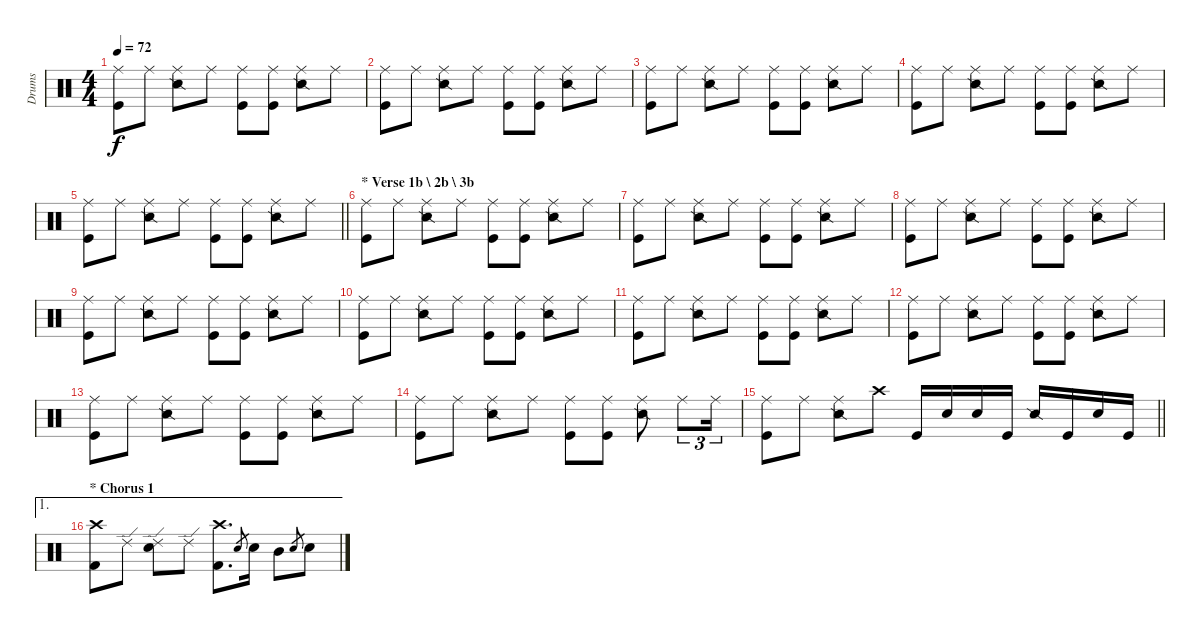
\track ("Drums" "Drums") {instrument percussion}
\staff {score}
\articulation defaults
\ts (4 4)
\tempo 72
\clef neutral
\ks c
("Ride (middle)" "Kick (hit)").8{dy f} "Ride (middle)".8 ("Ride (middle)" "Snare (side stick) 2").8 "Ride (middle)".8 ("Ride (middle)" "Kick (hit)").8 ("Ride (middle)" "Kick (hit)").8 ("Ride (middle)" "Snare (side stick) 2").8 "Ride (middle)".8 |
("Ride (middle)" "Kick (hit)").8 "Ride (middle)".8 ("Ride (middle)" "Snare (side stick) 2").8 "Ride (middle)".8 ("Ride (middle)" "Kick (hit)").8 ("Ride (middle)" "Kick (hit)").8 ("Ride (middle)" "Snare (side stick) 2").8 "Ride (middle)".8 |
("Ride (middle)" "Kick (hit)").8 "Ride (middle)".8 ("Ride (middle)" "Snare (side stick) 2").8 "Ride (middle)".8 ("Ride (middle)" "Kick (hit)").8 ("Ride (middle)" "Kick (hit)").8 ("Ride (middle)" "Snare (side stick) 2").8 "Ride (middle)".8 |
("Ride (middle)" "Kick (hit)").8 "Ride (middle)".8 ("Ride (middle)" "Snare (side stick) 2").8 "Ride (middle)".8 ("Ride (middle)" "Kick (hit)").8 ("Ride (middle)" "Kick (hit)").8 ("Ride (middle)" "Snare (side stick) 2").8 "Ride (middle)".8 |
\barLineRight lightlight
("Ride (middle)" "Kick (hit)").8 "Ride (middle)".8 ("Ride (middle)" "Snare (side stick) 2").8 "Ride (middle)".8 ("Ride (middle)" "Kick (hit)").8 ("Ride (middle)" "Kick (hit)").8 ("Ride (middle)" "Snare (side stick) 2").8 "Ride (middle)".8 |
\section ("" "* Verse 1b \\ 2b \\ 3b")
("Ride (middle)" "Kick (hit)").8 "Ride (middle)".8 ("Ride (middle)" "Snare (side stick) 2").8 "Ride (middle)".8 ("Ride (middle)" "Kick (hit)").8 ("Ride (middle)" "Kick (hit)").8 ("Ride (middle)" "Snare (side stick) 2").8 "Ride (middle)".8 |
("Ride (middle)" "Kick (hit)").8 "Ride (middle)".8 ("Ride (middle)" "Snare (side stick) 2").8 "Ride (middle)".8 ("Ride (middle)" "Kick (hit)").8 ("Ride (middle)" "Kick (hit)").8 ("Ride (middle)" "Snare (side stick) 2").8 "Ride (middle)".8 |
("Ride (middle)" "Kick (hit)").8 "Ride (middle)".8 ("Ride (middle)" "Snare (side stick) 2").8 "Ride (middle)".8 ("Ride (middle)" "Kick (hit)").8 ("Ride (middle)" "Kick (hit)").8 ("Ride (middle)" "Snare (side stick) 2").8 "Ride (middle)".8 |
("Ride (middle)" "Kick (hit)").8 "Ride (middle)".8 ("Ride (middle)" "Snare (side stick) 2").8 "Ride (middle)".8 ("Ride (middle)" "Kick (hit)").8 ("Ride (middle)" "Kick (hit)").8 ("Ride (middle)" "Snare (side stick) 2").8 "Ride (middle)".8 |
("Ride (middle)" "Kick (hit)").8 "Ride (middle)".8 ("Ride (middle)" "Snare (side stick) 2").8 "Ride (middle)".8 ("Ride (middle)" "Kick (hit)").8 ("Ride (middle)" "Kick (hit)").8 ("Ride (middle)" "Snare (side stick) 2").8 "Ride (middle)".8 |
("Ride (middle)" "Kick (hit)").8 "Ride (middle)".8 ("Ride (middle)" "Snare (side stick) 2").8 "Ride (middle)".8 ("Ride (middle)" "Kick (hit)").8 ("Ride (middle)" "Kick (hit)").8 ("Ride (middle)" "Snare (side stick) 2").8 "Ride (middle)".8 |
("Ride (middle)" "Kick (hit)").8 "Ride (middle)".8 ("Ride (middle)" "Snare (side stick) 2").8 "Ride (middle)".8 ("Ride (middle)" "Kick (hit)").8 ("Ride (middle)" "Kick (hit)").8 ("Ride (middle)" "Snare (side stick) 2").8 "Ride (middle)".8 |
("Ride (middle)" "Kick (hit)").8 "Ride (middle)".8 ("Ride (middle)" "Snare (side stick) 2").8 "Ride (middle)".8 ("Ride (middle)" "Kick (hit)").8 ("Ride (middle)" "Kick (hit)").8 ("Ride (middle)" "Snare (side stick) 2").8 "Ride (middle)".8 |
("Ride (middle)" "Kick (hit)").8 "Ride (middle)".8 ("Ride (middle)" "Snare (side stick) 2").8 "Ride (middle)".8 ("Ride (middle)" "Kick (hit)").8 ("Ride (middle)" "Kick (hit)").8 ("Ride (middle)" "Snare (side stick) 2").8 "Ride (middle)".8{tu (3 2)} "Ride (middle)".16{tu (3 2)} |
\barLineRight lightlight
("Ride (middle)" "Kick (hit)").8 "Ride (middle)".8 ("Ride (middle)" "Snare (side stick) 2").8 "Crash high (hit)".8 "Kick (hit)".16 "Electric Snare (hit)".16 "Electric Snare (hit)".16 "Kick (hit)".16 "Snare (side stick) 2".16 "Kick (hit)".16 "Snare (hit) 2".16 "Kick (hit)".16 |
\ae 1
\section ("" "* Chorus 1")
("Crash high (hit)" "Kick (hit) 2").8 "Ride (edge) 2".8 ("Ride (edge) 2" "Electric Snare (hit)").8 "Ride (edge) 2".8 ("Crash high (hit)" "Kick (hit) 2").8{d} "Electric Snare (hit)".8{gr} "Electric Snare (hit)".16 "Mid Tom (hit)".8 "Electric Snare (hit)".8{gr} "Electric Snare (hit)".8
